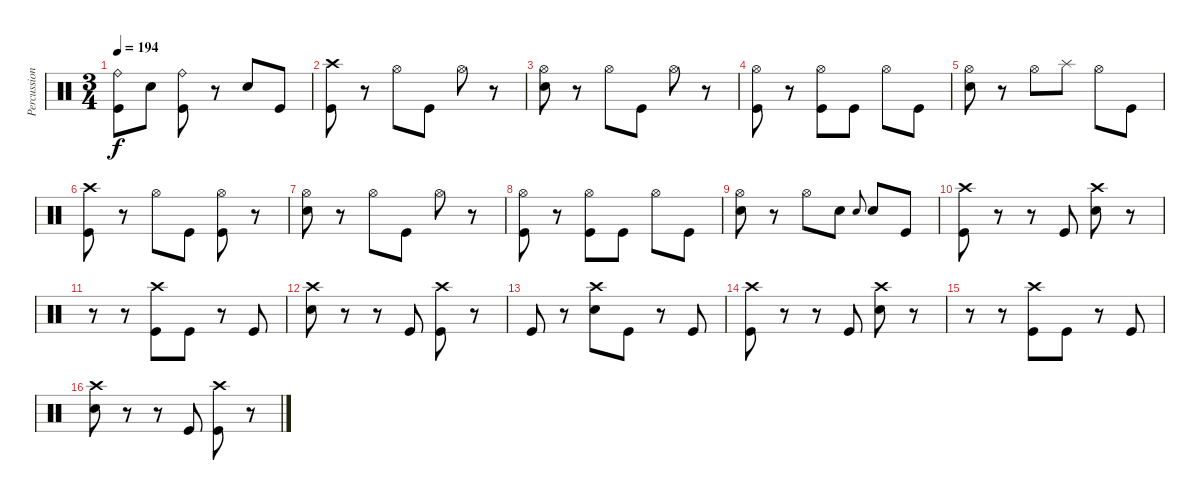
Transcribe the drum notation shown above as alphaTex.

\track ("Percussion" "Percussion") {instrument percussion}
\staff {score}
\articulation defaults
\ts (3 4)
\tempo 194
\clef neutral
\ks c
("Ride (bell)" "Kick (hit)").8{dy f} "Snare (hit) 2".8 ("Ride (bell)" "Kick (hit)").8 r.8 "Snare (hit) 2".8 "Kick (hit)".8 |
("Crash high (hit)" "Kick (hit)").8 r.8 "Hi-Hat (open)".8 "Kick (hit)".8 "Hi-Hat (open)".8 r.8 |
("Hi-Hat (open)" "Snare (hit) 2").8 r.8 "Hi-Hat (open)".8 "Kick (hit)".8 "Hi-Hat (open)".8 r.8 |
("Hi-Hat (open)" "Kick (hit)").8 r.8 ("Hi-Hat (open)" "Kick (hit)").8 "Kick (hit)".8 "Hi-Hat (open)".8 "Kick (hit)".8 |
("Snare (hit) 2" "Hi-Hat (open)").8 r.8 "Hi-Hat (open)".8 "Splash (hit)".8 "Hi-Hat (open)".8 "Kick (hit)".8 |
("Crash high (hit)" "Kick (hit)").8 r.8 "Hi-Hat (open)".8 "Kick (hit)".8 ("Hi-Hat (open)" "Kick (hit)").8 r.8 |
("Hi-Hat (open)" "Snare (hit) 2").8 r.8 "Hi-Hat (open)".8 "Kick (hit)".8 "Hi-Hat (open)".8 r.8 |
("Hi-Hat (open)" "Kick (hit)").8 r.8 ("Hi-Hat (open)" "Kick (hit)").8 "Kick (hit)".8 "Hi-Hat (open)".8 "Kick (hit)".8 |
("Hi-Hat (open)" "Snare (hit) 2").8 r.8 "Hi-Hat (open)".8 "Snare (hit) 2".8 "Snare (hit) 2".8{gr onbeat} "Snare (hit) 2".8 "Kick (hit)".8 |
("Crash high (hit)" "Kick (hit)").8 r.8 r.8 "Kick (hit)".8 ("Snare (hit) 2" "Crash high (hit)").8 r.8 |
r.8 r.8 ("Crash high (hit)" "Kick (hit)").8 "Kick (hit)".8 r.8 "Kick (hit)".8 |
("Snare (hit) 2" "Crash high (hit)").8 r.8 r.8 "Kick (hit)".8 ("Crash high (hit)" "Kick (hit)").8 r.8 |
"Kick (hit)".8 r.8 ("Snare (hit) 2" "Crash high (hit)").8 "Kick (hit)".8 r.8 "Kick (hit)".8 |
("Crash high (hit)" "Kick (hit)").8 r.8 r.8 "Kick (hit)".8 ("Snare (hit) 2" "Crash high (hit)").8 r.8 |
r.8 r.8 ("Crash high (hit)" "Kick (hit)").8 "Kick (hit)".8 r.8 "Kick (hit)".8 |
("Snare (hit) 2" "Crash high (hit)").8 r.8 r.8 "Kick (hit)".8 ("Crash high (hit)" "Kick (hit)").8 r.8
